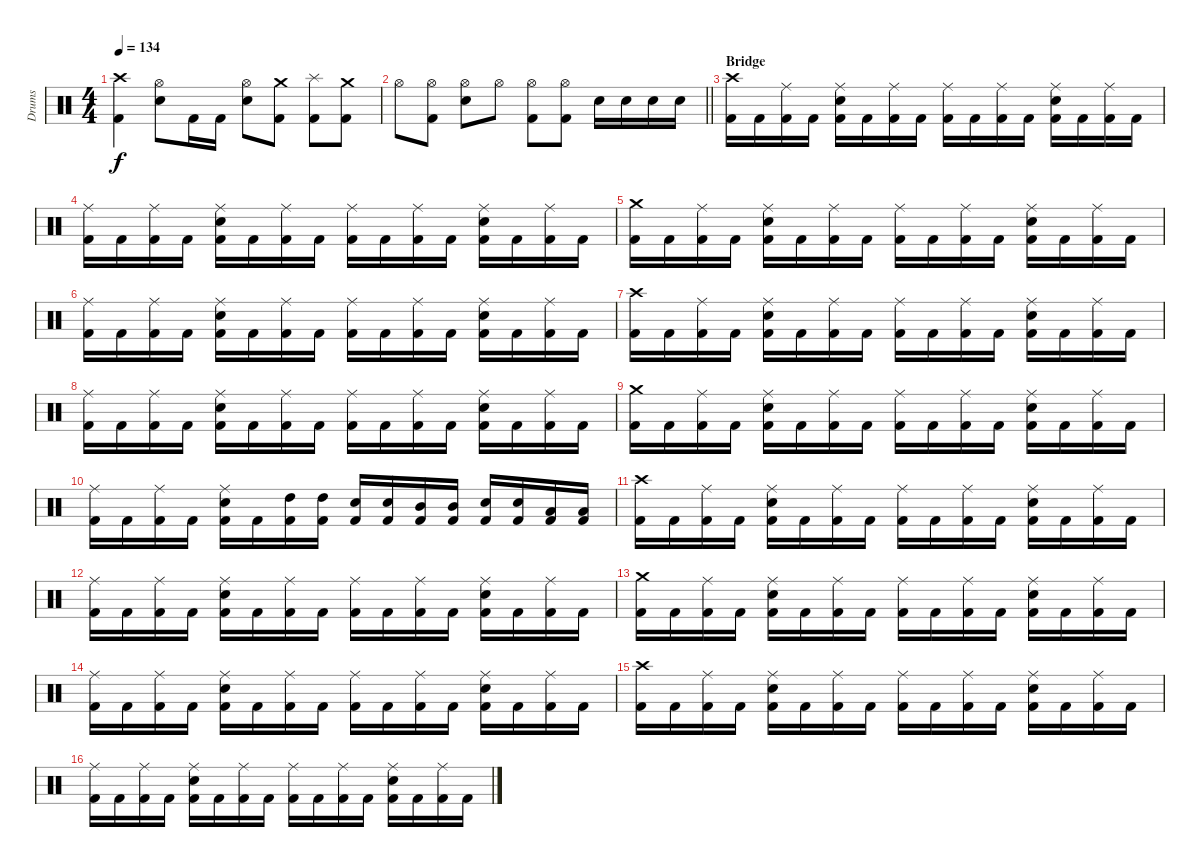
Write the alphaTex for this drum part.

\track ("Drums" "Drums") {instrument percussion}
\staff {score}
\articulation defaults
\ts (4 4)
\tempo 134
\clef neutral
\ks c
("Crash high (hit)" "Kick (hit) 2").4{dy f} ("Hi-Hat (open)" "Electric Snare (hit)").8 "Kick (hit) 2".16 "Kick (hit) 2".16 ("Hi-Hat (open)" "Electric Snare (hit)").8 ("Crash medium (hit)" "Kick (hit) 2").8 ("Splash (hit)" "Kick (hit) 2").8 ("Crash medium (hit)" "Kick (hit) 2").8 |
\barLineRight lightlight "Hi-Hat (open)".8
("Hi-Hat (open)" "Kick (hit) 2").8 ("Hi-Hat (open)" "Electric Snare (hit)").8 "Hi-Hat (open)".8 ("Hi-Hat (open)" "Kick (hit) 2").8 ("Hi-Hat (open)" "Kick (hit) 2").8 "Electric Snare (hit)".16 "Electric Snare (hit)".16 "Electric Snare (hit)".16 "Electric Snare (hit)".16 |
\section ("" "Bridge")
("Crash high (hit)" "Kick (hit) 2").16 "Kick (hit) 2".16 ("Ride (middle)" "Kick (hit) 2").16 "Kick (hit) 2".16 ("Ride (middle)" "Electric Snare (hit)" "Kick (hit) 2").16 "Kick (hit) 2".16 ("Ride (middle)" "Kick (hit) 2").16 "Kick (hit) 2".16 ("Ride (middle)" "Kick (hit) 2").16 "Kick (hit) 2".16 ("Ride (middle)" "Kick (hit) 2").16 "Kick (hit) 2".16 ("Ride (middle)" "Electric Snare (hit)" "Kick (hit) 2").16 "Kick (hit) 2".16 ("Ride (middle)" "Kick (hit) 2").16 "Kick (hit) 2".16 |
("Ride (middle)" "Kick (hit) 2").16 "Kick (hit) 2".16 ("Ride (middle)" "Kick (hit) 2").16 "Kick (hit) 2".16 ("Ride (middle)" "Electric Snare (hit)" "Kick (hit) 2").16 "Kick (hit) 2".16 ("Ride (middle)" "Kick (hit) 2").16 "Kick (hit) 2".16 ("Ride (middle)" "Kick (hit) 2").16 "Kick (hit) 2".16 ("Ride (middle)" "Kick (hit) 2").16 "Kick (hit) 2".16 ("Ride (middle)" "Electric Snare (hit)" "Kick (hit) 2").16 "Kick (hit) 2".16 ("Ride (middle)" "Kick (hit) 2").16 "Kick (hit) 2".16 |
("Crash medium (hit)" "Kick (hit) 2").16 "Kick (hit) 2".16 ("Ride (middle)" "Kick (hit) 2").16 "Kick (hit) 2".16 ("Ride (middle)" "Electric Snare (hit)" "Kick (hit) 2").16 "Kick (hit) 2".16 ("Ride (middle)" "Kick (hit) 2").16 "Kick (hit) 2".16 ("Ride (middle)" "Kick (hit) 2").16 "Kick (hit) 2".16 ("Ride (middle)" "Kick (hit) 2").16 "Kick (hit) 2".16 ("Ride (middle)" "Electric Snare (hit)" "Kick (hit) 2").16 "Kick (hit) 2".16 ("Ride (middle)" "Kick (hit) 2").16 "Kick (hit) 2".16 |
("Ride (middle)" "Kick (hit) 2").16 "Kick (hit) 2".16 ("Ride (middle)" "Kick (hit) 2").16 "Kick (hit) 2".16 ("Ride (middle)" "Electric Snare (hit)" "Kick (hit) 2").16 "Kick (hit) 2".16 ("Ride (middle)" "Kick (hit) 2").16 "Kick (hit) 2".16 ("Ride (middle)" "Kick (hit) 2").16 "Kick (hit) 2".16 ("Ride (middle)" "Kick (hit) 2").16 "Kick (hit) 2".16 ("Ride (middle)" "Electric Snare (hit)" "Kick (hit) 2").16 "Kick (hit) 2".16 ("Ride (middle)" "Kick (hit) 2").16 "Kick (hit) 2".16 |
("Crash high (hit)" "Kick (hit) 2").16 "Kick (hit) 2".16 ("Ride (middle)" "Kick (hit) 2").16 "Kick (hit) 2".16 ("Ride (middle)" "Electric Snare (hit)" "Kick (hit) 2").16 "Kick (hit) 2".16 ("Ride (middle)" "Kick (hit) 2").16 "Kick (hit) 2".16 ("Ride (middle)" "Kick (hit) 2").16 "Kick (hit) 2".16 ("Ride (middle)" "Kick (hit) 2").16 "Kick (hit) 2".16 ("Ride (middle)" "Electric Snare (hit)" "Kick (hit) 2").16 "Kick (hit) 2".16 ("Ride (middle)" "Kick (hit) 2").16 "Kick (hit) 2".16 |
("Ride (middle)" "Kick (hit) 2").16 "Kick (hit) 2".16 ("Ride (middle)" "Kick (hit) 2").16 "Kick (hit) 2".16 ("Ride (middle)" "Electric Snare (hit)" "Kick (hit) 2").16 "Kick (hit) 2".16 ("Ride (middle)" "Kick (hit) 2").16 "Kick (hit) 2".16 ("Ride (middle)" "Kick (hit) 2").16 "Kick (hit) 2".16 ("Ride (middle)" "Kick (hit) 2").16 "Kick (hit) 2".16 ("Ride (middle)" "Electric Snare (hit)" "Kick (hit) 2").16 "Kick (hit) 2".16 ("Ride (middle)" "Kick (hit) 2").16 "Kick (hit) 2".16 |
("Crash medium (hit)" "Kick (hit) 2").16 "Kick (hit) 2".16 ("Ride (middle)" "Kick (hit) 2").16 "Kick (hit) 2".16 ("Ride (middle)" "Electric Snare (hit)" "Kick (hit) 2").16 "Kick (hit) 2".16 ("Ride (middle)" "Kick (hit) 2").16 "Kick (hit) 2".16 ("Ride (middle)" "Kick (hit) 2").16 "Kick (hit) 2".16 ("Ride (middle)" "Kick (hit) 2").16 "Kick (hit) 2".16 ("Ride (middle)" "Electric Snare (hit)" "Kick (hit) 2").16 "Kick (hit) 2".16 ("Ride (middle)" "Kick (hit) 2").16 "Kick (hit) 2".16 |
("Ride (middle)" "Kick (hit) 2").16 "Kick (hit) 2".16 ("Ride (middle)" "Kick (hit) 2").16 "Kick (hit) 2".16 ("Ride (middle)" "Electric Snare (hit)" "Kick (hit) 2").16 "Kick (hit) 2".16 ("High Tom (hit)" "Kick (hit) 2").16 ("High Tom (hit)" "Kick (hit) 2").16 ("Electric Snare (hit)" "Kick (hit) 2").16 ("Electric Snare (hit)" "Kick (hit) 2").16 ("Mid Tom (hit)" "Kick (hit) 2").16 ("Mid Tom (hit)" "Kick (hit) 2").16 ("Electric Snare (hit)" "Kick (hit) 2").16 ("Electric Snare (hit)" "Kick (hit) 2").16 ("Low Tom (hit)" "Kick (hit) 2").16 ("Low Tom (hit)" "Kick (hit) 2").16 |
("Crash high (hit)" "Kick (hit) 2").16 "Kick (hit) 2".16 ("Ride (middle)" "Kick (hit) 2").16 "Kick (hit) 2".16 ("Ride (middle)" "Electric Snare (hit)" "Kick (hit) 2").16 "Kick (hit) 2".16 ("Ride (middle)" "Kick (hit) 2").16 "Kick (hit) 2".16 ("Ride (middle)" "Kick (hit) 2").16 "Kick (hit) 2".16 ("Ride (middle)" "Kick (hit) 2").16 "Kick (hit) 2".16 ("Ride (middle)" "Electric Snare (hit)" "Kick (hit) 2").16 "Kick (hit) 2".16 ("Ride (middle)" "Kick (hit) 2").16 "Kick (hit) 2".16 |
("Ride (middle)" "Kick (hit) 2").16 "Kick (hit) 2".16 ("Ride (middle)" "Kick (hit) 2").16 "Kick (hit) 2".16 ("Ride (middle)" "Electric Snare (hit)" "Kick (hit) 2").16 "Kick (hit) 2".16 ("Ride (middle)" "Kick (hit) 2").16 "Kick (hit) 2".16 ("Ride (middle)" "Kick (hit) 2").16 "Kick (hit) 2".16 ("Ride (middle)" "Kick (hit) 2").16 "Kick (hit) 2".16 ("Ride (middle)" "Electric Snare (hit)" "Kick (hit) 2").16 "Kick (hit) 2".16 ("Ride (middle)" "Kick (hit) 2").16 "Kick (hit) 2".16 |
("Crash medium (hit)" "Kick (hit) 2").16 "Kick (hit) 2".16 ("Ride (middle)" "Kick (hit) 2").16 "Kick (hit) 2".16 ("Ride (middle)" "Electric Snare (hit)" "Kick (hit) 2").16 "Kick (hit) 2".16 ("Ride (middle)" "Kick (hit) 2").16 "Kick (hit) 2".16 ("Ride (middle)" "Kick (hit) 2").16 "Kick (hit) 2".16 ("Ride (middle)" "Kick (hit) 2").16 "Kick (hit) 2".16 ("Ride (middle)" "Electric Snare (hit)" "Kick (hit) 2").16 "Kick (hit) 2".16 ("Ride (middle)" "Kick (hit) 2").16 "Kick (hit) 2".16 |
("Ride (middle)" "Kick (hit) 2").16 "Kick (hit) 2".16 ("Ride (middle)" "Kick (hit) 2").16 "Kick (hit) 2".16 ("Ride (middle)" "Electric Snare (hit)" "Kick (hit) 2").16 "Kick (hit) 2".16 ("Ride (middle)" "Kick (hit) 2").16 "Kick (hit) 2".16 ("Ride (middle)" "Kick (hit) 2").16 "Kick (hit) 2".16 ("Ride (middle)" "Kick (hit) 2").16 "Kick (hit) 2".16 ("Ride (middle)" "Electric Snare (hit)" "Kick (hit) 2").16 "Kick (hit) 2".16 ("Ride (middle)" "Kick (hit) 2").16 "Kick (hit) 2".16 |
("Crash high (hit)" "Kick (hit) 2").16 "Kick (hit) 2".16 ("Ride (middle)" "Kick (hit) 2").16 "Kick (hit) 2".16 ("Ride (middle)" "Electric Snare (hit)" "Kick (hit) 2").16 "Kick (hit) 2".16 ("Ride (middle)" "Kick (hit) 2").16 "Kick (hit) 2".16 ("Ride (middle)" "Kick (hit) 2").16 "Kick (hit) 2".16 ("Ride (middle)" "Kick (hit) 2").16 "Kick (hit) 2".16 ("Ride (middle)" "Electric Snare (hit)" "Kick (hit) 2").16 "Kick (hit) 2".16 ("Ride (middle)" "Kick (hit) 2").16 "Kick (hit) 2".16 |
("Ride (middle)" "Kick (hit) 2").16 "Kick (hit) 2".16 ("Ride (middle)" "Kick (hit) 2").16 "Kick (hit) 2".16 ("Ride (middle)" "Electric Snare (hit)" "Kick (hit) 2").16 "Kick (hit) 2".16 ("Ride (middle)" "Kick (hit) 2").16 "Kick (hit) 2".16 ("Ride (middle)" "Kick (hit) 2").16 "Kick (hit) 2".16 ("Ride (middle)" "Kick (hit) 2").16 "Kick (hit) 2".16 ("Ride (middle)" "Electric Snare (hit)" "Kick (hit) 2").16 "Kick (hit) 2".16 ("Ride (middle)" "Kick (hit) 2").16 "Kick (hit) 2".16
